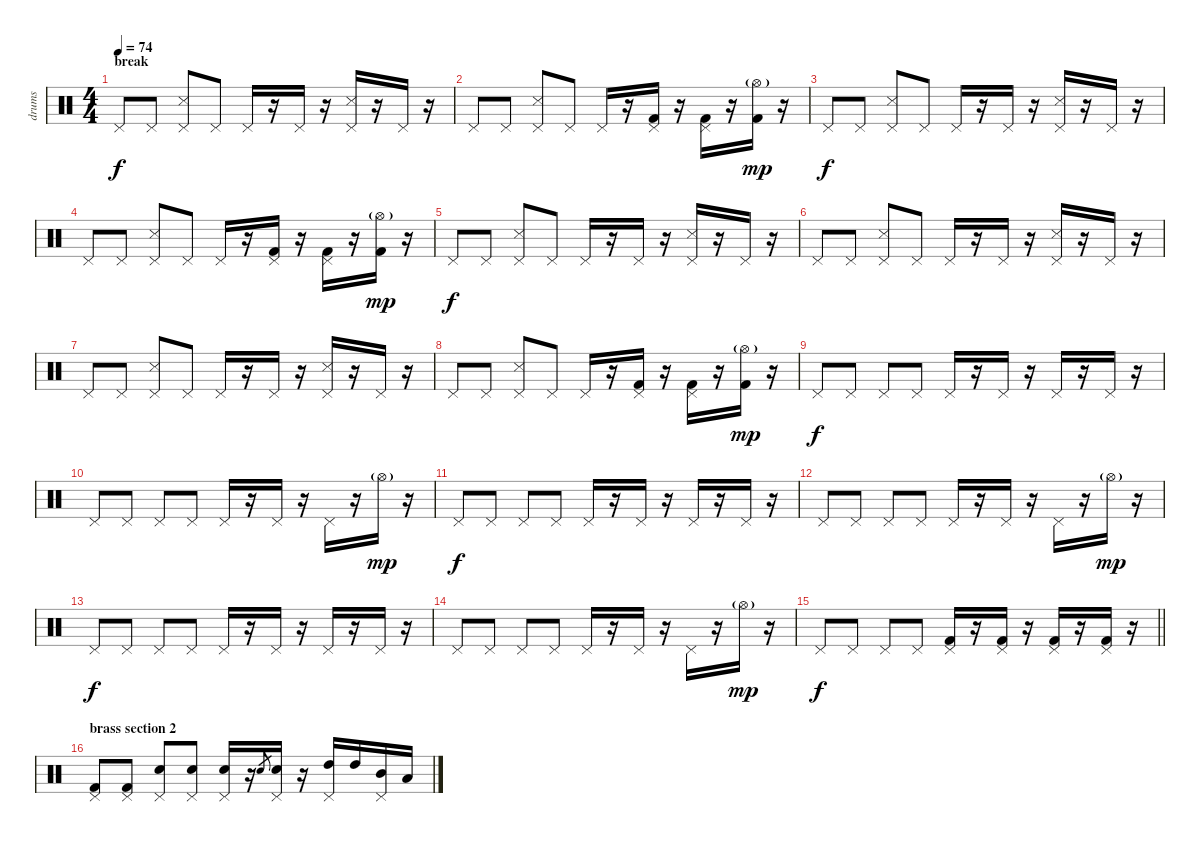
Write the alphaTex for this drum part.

\track ("drums" "drums") {instrument percussion}
\staff {score}
\articulation defaults
\ts (4 4)
\section ("" "break ")
\tempo 74
\clef neutral
\ks c "Pedal Hi-Hat (hit)".8{dy f} "Pedal Hi-Hat (hit)".8
("Snare (side stick) 3" "Pedal Hi-Hat (hit)").8 "Pedal Hi-Hat (hit)".8 "Pedal Hi-Hat (hit)".16 r.16 "Pedal Hi-Hat (hit)".16 r.16 ("Snare (side stick) 3" "Pedal Hi-Hat (hit)").16 r.16 "Pedal Hi-Hat (hit)".16 r.16 |
"Pedal Hi-Hat (hit)".8 "Pedal Hi-Hat (hit)".8 ("Snare (side stick) 3" "Pedal Hi-Hat (hit)").8 "Pedal Hi-Hat (hit)".8 "Pedal Hi-Hat (hit)".16 r.16 ("Kick (hit) 2" "Pedal Hi-Hat (hit)").16 r.16 ("Kick (hit) 2" "Pedal Hi-Hat (hit)").16 r.16 ("Kick (hit) 2" "Hi-Hat (open)"{g}).16{dy mp} r.16 |
"Pedal Hi-Hat (hit)".8{dy f} "Pedal Hi-Hat (hit)".8 ("Snare (side stick) 3" "Pedal Hi-Hat (hit)").8 "Pedal Hi-Hat (hit)".8 "Pedal Hi-Hat (hit)".16 r.16 "Pedal Hi-Hat (hit)".16 r.16 ("Snare (side stick) 3" "Pedal Hi-Hat (hit)").16 r.16 "Pedal Hi-Hat (hit)".16 r.16 |
"Pedal Hi-Hat (hit)".8 "Pedal Hi-Hat (hit)".8 ("Snare (side stick) 3" "Pedal Hi-Hat (hit)").8 "Pedal Hi-Hat (hit)".8 "Pedal Hi-Hat (hit)".16 r.16 ("Kick (hit) 2" "Pedal Hi-Hat (hit)").16 r.16 ("Kick (hit) 2" "Pedal Hi-Hat (hit)").16 r.16 ("Kick (hit) 2" "Hi-Hat (open)"{g}).16{dy mp} r.16 |
"Pedal Hi-Hat (hit)".8{dy f} "Pedal Hi-Hat (hit)".8 ("Snare (side stick) 3" "Pedal Hi-Hat (hit)").8 "Pedal Hi-Hat (hit)".8 "Pedal Hi-Hat (hit)".16 r.16 "Pedal Hi-Hat (hit)".16 r.16 ("Snare (side stick) 3" "Pedal Hi-Hat (hit)").16 r.16 "Pedal Hi-Hat (hit)".16 r.16 |
"Pedal Hi-Hat (hit)".8 "Pedal Hi-Hat (hit)".8 ("Snare (side stick) 3" "Pedal Hi-Hat (hit)").8 "Pedal Hi-Hat (hit)".8 "Pedal Hi-Hat (hit)".16 r.16 "Pedal Hi-Hat (hit)".16 r.16 ("Snare (side stick) 3" "Pedal Hi-Hat (hit)").16 r.16 "Pedal Hi-Hat (hit)".16 r.16 |
"Pedal Hi-Hat (hit)".8 "Pedal Hi-Hat (hit)".8 ("Snare (side stick) 3" "Pedal Hi-Hat (hit)").8 "Pedal Hi-Hat (hit)".8 "Pedal Hi-Hat (hit)".16 r.16 "Pedal Hi-Hat (hit)".16 r.16 ("Snare (side stick) 3" "Pedal Hi-Hat (hit)").16 r.16 "Pedal Hi-Hat (hit)".16 r.16 |
"Pedal Hi-Hat (hit)".8 "Pedal Hi-Hat (hit)".8 ("Snare (side stick) 3" "Pedal Hi-Hat (hit)").8 "Pedal Hi-Hat (hit)".8 "Pedal Hi-Hat (hit)".16 r.16 ("Kick (hit) 2" "Pedal Hi-Hat (hit)").16 r.16 ("Kick (hit) 2" "Pedal Hi-Hat (hit)").16 r.16 ("Kick (hit) 2" "Hi-Hat (open)"{g}).16{dy mp} r.16 |
"Pedal Hi-Hat (hit)".8{dy f} "Pedal Hi-Hat (hit)".8 "Pedal Hi-Hat (hit)".8 "Pedal Hi-Hat (hit)".8 "Pedal Hi-Hat (hit)".16 r.16 "Pedal Hi-Hat (hit)".16 r.16 "Pedal Hi-Hat (hit)".16 r.16 "Pedal Hi-Hat (hit)".16 r.16 |
"Pedal Hi-Hat (hit)".8 "Pedal Hi-Hat (hit)".8 "Pedal Hi-Hat (hit)".8 "Pedal Hi-Hat (hit)".8 "Pedal Hi-Hat (hit)".16 r.16 "Pedal Hi-Hat (hit)".16 r.16 "Pedal Hi-Hat (hit)".16 r.16 "Hi-Hat (open)"{g}.16{dy mp} r.16 |
"Pedal Hi-Hat (hit)".8{dy f} "Pedal Hi-Hat (hit)".8 "Pedal Hi-Hat (hit)".8 "Pedal Hi-Hat (hit)".8 "Pedal Hi-Hat (hit)".16 r.16 "Pedal Hi-Hat (hit)".16 r.16 "Pedal Hi-Hat (hit)".16 r.16 "Pedal Hi-Hat (hit)".16 r.16 |
"Pedal Hi-Hat (hit)".8 "Pedal Hi-Hat (hit)".8 "Pedal Hi-Hat (hit)".8 "Pedal Hi-Hat (hit)".8 "Pedal Hi-Hat (hit)".16 r.16 "Pedal Hi-Hat (hit)".16 r.16 "Pedal Hi-Hat (hit)".16 r.16 "Hi-Hat (open)"{g}.16{dy mp} r.16 |
"Pedal Hi-Hat (hit)".8{dy f} "Pedal Hi-Hat (hit)".8 "Pedal Hi-Hat (hit)".8 "Pedal Hi-Hat (hit)".8 "Pedal Hi-Hat (hit)".16 r.16 "Pedal Hi-Hat (hit)".16 r.16 "Pedal Hi-Hat (hit)".16 r.16 "Pedal Hi-Hat (hit)".16 r.16 |
"Pedal Hi-Hat (hit)".8 "Pedal Hi-Hat (hit)".8 "Pedal Hi-Hat (hit)".8 "Pedal Hi-Hat (hit)".8 "Pedal Hi-Hat (hit)".16 r.16 "Pedal Hi-Hat (hit)".16 r.16 "Pedal Hi-Hat (hit)".16 r.16 "Hi-Hat (open)"{g}.16{dy mp} r.16 |
\barLineRight lightlight "Pedal Hi-Hat (hit)".8{dy f} "Pedal Hi-Hat (hit)".8 "Pedal Hi-Hat (hit)".8 "Pedal Hi-Hat (hit)".8
("Kick (hit) 2" "Pedal Hi-Hat (hit)").16 r.16 ("Kick (hit) 2" "Pedal Hi-Hat (hit)").16 r.16 ("Kick (hit) 2" "Pedal Hi-Hat (hit)").16 r.16 ("Kick (hit) 2" "Pedal Hi-Hat (hit)").16 r.16 |
\section ("" "brass section 2")
("Kick (hit) 2" "Pedal Hi-Hat (hit)").8 ("Kick (hit) 2" "Pedal Hi-Hat (hit)").8 ("Electric Snare (hit)" "Pedal Hi-Hat (hit)").8 ("Electric Snare (hit)"{tr (40 32)} "Pedal Hi-Hat (hit)").8 ("Electric Snare (hit)" "Pedal Hi-Hat (hit)").16 r.16 "Electric Snare (hit)".8{gr} ("Electric Snare (hit)" "Pedal Hi-Hat (hit)").16 r.16 ("High Tom (hit)" "Pedal Hi-Hat (hit)").16 "High Tom (hit)".16 ("Mid Tom (hit)" "Pedal Hi-Hat (hit)").16 "Low Tom (hit)".16
